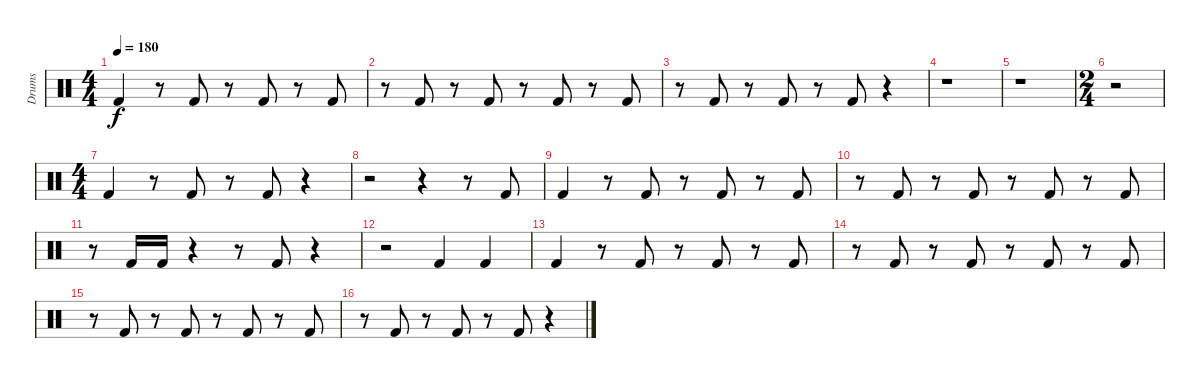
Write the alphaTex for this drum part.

\track ("Drums" "Drums") {instrument percussion}
\staff {score}
\articulation defaults
\ts (4 4)
\tempo 180
\clef neutral
\ks c "Kick (hit) 2".4{dy f}
r.8 "Kick (hit) 2".8 r.8 "Kick (hit) 2".8 r.8 "Kick (hit) 2".8 |
r.8 "Kick (hit) 2".8 r.8 "Kick (hit) 2".8 r.8 "Kick (hit) 2".8 r.8 "Kick (hit) 2".8 |
r.8 "Kick (hit) 2".8 r.8 "Kick (hit) 2".8 r.8 "Kick (hit) 2".8 r.4 |
r.1 |
r.1 |
\ts (2 4)
r.2 |
\ts (4 4)
"Kick (hit) 2".4 r.8 "Kick (hit) 2".8 r.8 "Kick (hit) 2".8 r.4 |
r.2 r.4 r.8 "Kick (hit) 2".8 |
"Kick (hit) 2".4 r.8 "Kick (hit) 2".8 r.8 "Kick (hit) 2".8 r.8 "Kick (hit) 2".8 |
r.8 "Kick (hit) 2".8 r.8 "Kick (hit) 2".8 r.8 "Kick (hit) 2".8 r.8 "Kick (hit) 2".8 |
r.8 "Kick (hit) 2".16 "Kick (hit) 2".16 r.4 r.8 "Kick (hit) 2".8 r.4 |
r.2 "Kick (hit) 2".4 "Kick (hit) 2".4 |
"Kick (hit) 2".4 r.8 "Kick (hit) 2".8 r.8 "Kick (hit) 2".8 r.8 "Kick (hit) 2".8 |
r.8 "Kick (hit) 2".8 r.8 "Kick (hit) 2".8 r.8 "Kick (hit) 2".8 r.8 "Kick (hit) 2".8 |
r.8 "Kick (hit) 2".8 r.8 "Kick (hit) 2".8 r.8 "Kick (hit) 2".8 r.8 "Kick (hit) 2".8 |
r.8 "Kick (hit) 2".8 r.8 "Kick (hit) 2".8 r.8 "Kick (hit) 2".8 r.4
